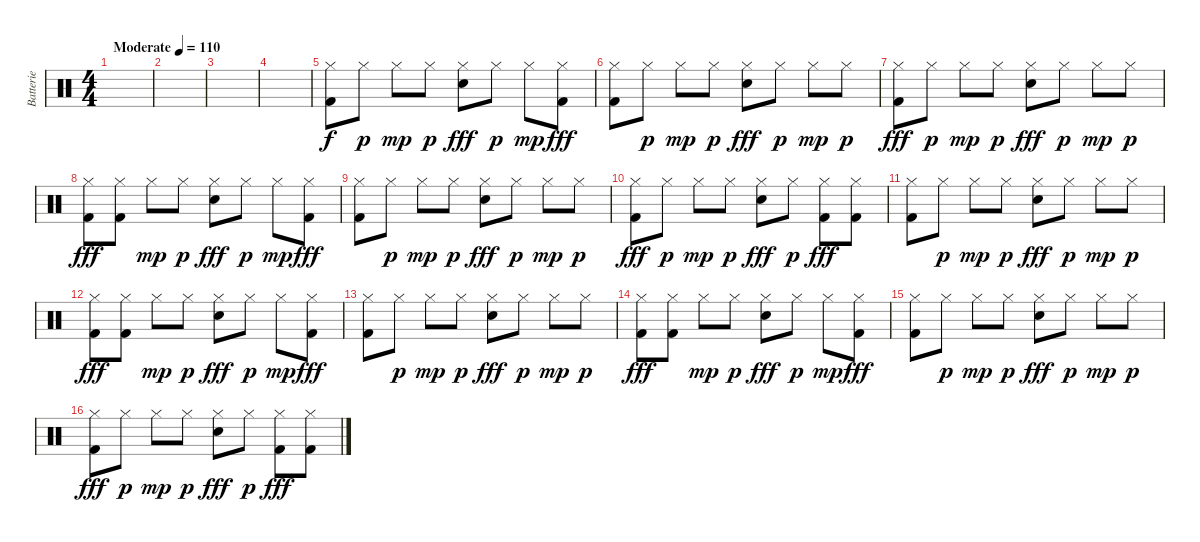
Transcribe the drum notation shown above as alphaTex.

\track ("Batterie" "Batterie") {instrument percussion}
\staff {score}
\articulation defaults
\ts (4 4)
\tempo (110 "Moderate")
\clef neutral
\ks c
|
|
|
|
("Hi-Hat (closed)" "Kick (hit) 2").8 "Hi-Hat (closed)".8{dy p} "Hi-Hat (closed)".8{dy mp} "Hi-Hat (closed)".8{dy p} ("Hi-Hat (closed)" "Electric Snare (hit)").8{dy fff} "Hi-Hat (closed)".8{dy p} "Hi-Hat (closed)".8{dy mp} ("Hi-Hat (closed)" "Kick (hit) 2").8{dy fff} |
("Hi-Hat (closed)" "Kick (hit) 2").8 "Hi-Hat (closed)".8{dy p} "Hi-Hat (closed)".8{dy mp} "Hi-Hat (closed)".8{dy p} ("Hi-Hat (closed)" "Electric Snare (hit)").8{dy fff} "Hi-Hat (closed)".8{dy p} "Hi-Hat (closed)".8{dy mp} "Hi-Hat (closed)".8{dy p} |
("Hi-Hat (closed)" "Kick (hit) 2").8{dy fff} "Hi-Hat (closed)".8{dy p} "Hi-Hat (closed)".8{dy mp} "Hi-Hat (closed)".8{dy p} ("Hi-Hat (closed)" "Electric Snare (hit)").8{dy fff} "Hi-Hat (closed)".8{dy p} "Hi-Hat (closed)".8{dy mp} "Hi-Hat (closed)".8{dy p} |
("Hi-Hat (closed)" "Kick (hit) 2").8{dy fff} ("Hi-Hat (closed)" "Kick (hit) 2").8 "Hi-Hat (closed)".8{dy mp} "Hi-Hat (closed)".8{dy p} ("Hi-Hat (closed)" "Electric Snare (hit)").8{dy fff} "Hi-Hat (closed)".8{dy p} "Hi-Hat (closed)".8{dy mp} ("Hi-Hat (closed)" "Kick (hit) 2").8{dy fff} |
("Hi-Hat (closed)" "Kick (hit) 2").8 "Hi-Hat (closed)".8{dy p} "Hi-Hat (closed)".8{dy mp} "Hi-Hat (closed)".8{dy p} ("Hi-Hat (closed)" "Electric Snare (hit)").8{dy fff} "Hi-Hat (closed)".8{dy p} "Hi-Hat (closed)".8{dy mp} "Hi-Hat (closed)".8{dy p} |
("Hi-Hat (closed)" "Kick (hit) 2").8{dy fff} "Hi-Hat (closed)".8{dy p} "Hi-Hat (closed)".8{dy mp} "Hi-Hat (closed)".8{dy p} ("Hi-Hat (closed)" "Electric Snare (hit)").8{dy fff} "Hi-Hat (closed)".8{dy p} ("Hi-Hat (closed)" "Kick (hit) 2").8{dy fff} ("Hi-Hat (closed)" "Kick (hit) 2").8 |
("Hi-Hat (closed)" "Kick (hit) 2").8 "Hi-Hat (closed)".8{dy p} "Hi-Hat (closed)".8{dy mp} "Hi-Hat (closed)".8{dy p} ("Hi-Hat (closed)" "Electric Snare (hit)").8{dy fff} "Hi-Hat (closed)".8{dy p} "Hi-Hat (closed)".8{dy mp} "Hi-Hat (closed)".8{dy p} |
("Hi-Hat (closed)" "Kick (hit) 2").8{dy fff} ("Hi-Hat (closed)" "Kick (hit) 2").8 "Hi-Hat (closed)".8{dy mp} "Hi-Hat (closed)".8{dy p} ("Hi-Hat (closed)" "Electric Snare (hit)").8{dy fff} "Hi-Hat (closed)".8{dy p} "Hi-Hat (closed)".8{dy mp} ("Hi-Hat (closed)" "Kick (hit) 2").8{dy fff} |
("Hi-Hat (closed)" "Kick (hit) 2").8 "Hi-Hat (closed)".8{dy p} "Hi-Hat (closed)".8{dy mp} "Hi-Hat (closed)".8{dy p} ("Hi-Hat (closed)" "Electric Snare (hit)").8{dy fff} "Hi-Hat (closed)".8{dy p} "Hi-Hat (closed)".8{dy mp} "Hi-Hat (closed)".8{dy p} |
("Hi-Hat (closed)" "Kick (hit) 2").8{dy fff} ("Hi-Hat (closed)" "Kick (hit) 2").8 "Hi-Hat (closed)".8{dy mp} "Hi-Hat (closed)".8{dy p} ("Hi-Hat (closed)" "Electric Snare (hit)").8{dy fff} "Hi-Hat (closed)".8{dy p} "Hi-Hat (closed)".8{dy mp} ("Hi-Hat (closed)" "Kick (hit) 2").8{dy fff} |
("Hi-Hat (closed)" "Kick (hit) 2").8 "Hi-Hat (closed)".8{dy p} "Hi-Hat (closed)".8{dy mp} "Hi-Hat (closed)".8{dy p} ("Hi-Hat (closed)" "Electric Snare (hit)").8{dy fff} "Hi-Hat (closed)".8{dy p} "Hi-Hat (closed)".8{dy mp} "Hi-Hat (closed)".8{dy p} |
("Hi-Hat (closed)" "Kick (hit) 2").8{dy fff} "Hi-Hat (closed)".8{dy p} "Hi-Hat (closed)".8{dy mp} "Hi-Hat (closed)".8{dy p} ("Hi-Hat (closed)" "Electric Snare (hit)").8{dy fff} "Hi-Hat (closed)".8{dy p} ("Hi-Hat (closed)" "Kick (hit) 2").8{dy fff} ("Hi-Hat (closed)" "Kick (hit) 2").8
